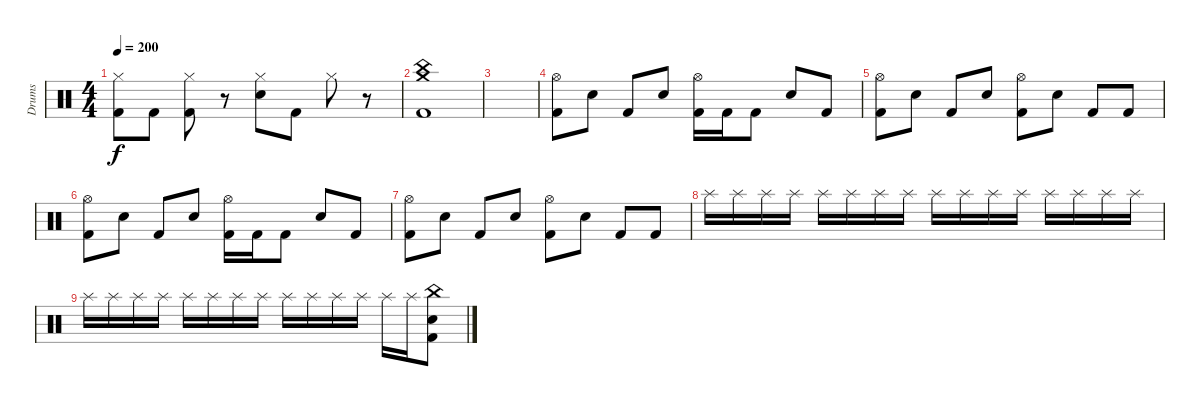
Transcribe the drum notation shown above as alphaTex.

\track ("Drums" "Drums") {instrument percussion}
\staff {score}
\articulation defaults
\ts (4 4)
\tempo 200
\clef neutral
\ks c
("Hi-Hat (closed)" "Kick (hit) 2").8{dy f} "Kick (hit) 2".8 ("Hi-Hat (closed)" "Kick (hit) 2").8 r.8 ("Hi-Hat (closed)" "Electric Snare (hit)").8 "Kick (hit) 2".8 "Hi-Hat (closed)".8 r.8 |
("Crash medium (hit)" "China (hit)" "Kick (hit) 2").1 |
|
("Hi-Hat (open)" "Kick (hit) 2").8 "Electric Snare (hit)".8 "Kick (hit) 2".8 "Electric Snare (hit)".8 ("Hi-Hat (open)" "Kick (hit) 2").16 "Kick (hit) 2".16 "Kick (hit) 2".8 "Electric Snare (hit)".8 "Kick (hit) 2".8 |
("Hi-Hat (open)" "Kick (hit) 2").8 "Electric Snare (hit)".8 "Kick (hit) 2".8 "Electric Snare (hit)".8 ("Hi-Hat (open)" "Kick (hit) 2").8 "Electric Snare (hit)".8 "Kick (hit) 2".8 "Kick (hit) 2".8 |
("Hi-Hat (open)" "Kick (hit) 2").8 "Electric Snare (hit)".8 "Kick (hit) 2".8 "Electric Snare (hit)".8 ("Hi-Hat (open)" "Kick (hit) 2").16 "Kick (hit) 2".16 "Kick (hit) 2".8 "Electric Snare (hit)".8 "Kick (hit) 2".8 |
("Hi-Hat (open)" "Kick (hit) 2").8 "Electric Snare (hit)".8 "Kick (hit) 2".8 "Electric Snare (hit)".8 ("Hi-Hat (open)" "Kick (hit) 2").8 "Electric Snare (hit)".8 "Kick (hit) 2".8 "Kick (hit) 2".8 |
"Splash (hit)".16{volume 0} "Splash (hit)".16 "Splash (hit)".16 "Splash (hit)".16 "Splash (hit)".16 "Splash (hit)".16 "Splash (hit)".16 "Splash (hit)".16 "Splash (hit)".16 "Splash (hit)".16 "Splash (hit)".16 "Splash (hit)".16 "Splash (hit)".16 "Splash (hit)".16 "Splash (hit)".16 "Splash (hit)".16 |
"Splash (hit)".16 "Splash (hit)".16 "Splash (hit)".16 "Splash (hit)".16 "Splash (hit)".16 "Splash (hit)".16 "Splash (hit)".16 "Splash (hit)".16 "Splash (hit)".16 "Splash (hit)".16 "Splash (hit)".16 "Splash (hit)".16{volume 16} "Splash (hit)".16{volume 16} "Splash (hit)".16{volume 16} ("China (hit)" "Electric Snare (hit)" "Kick (hit) 2").8{volume 16}
